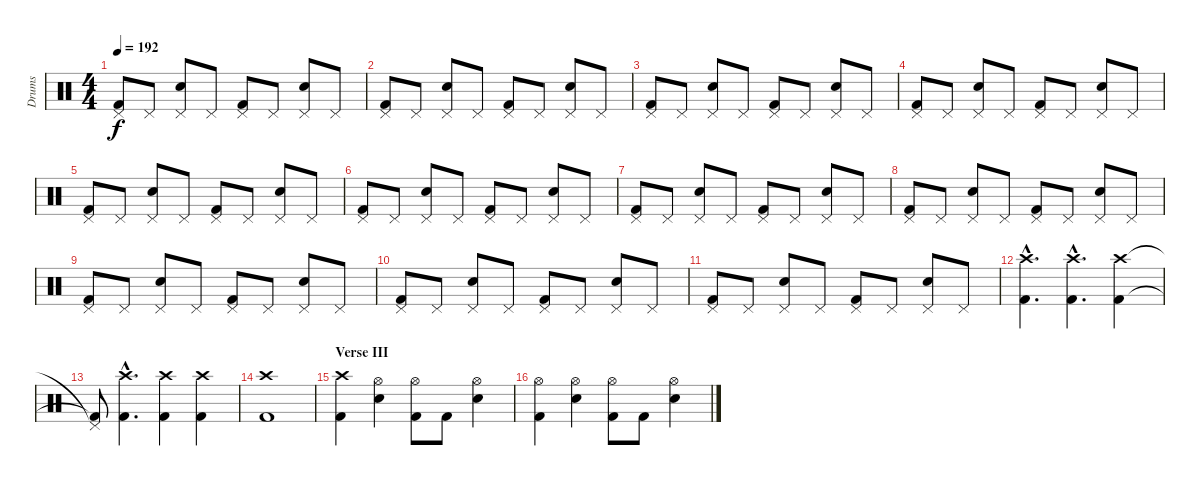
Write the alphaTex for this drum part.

\track ("Drums" "Drums") {instrument percussion}
\staff {score}
\articulation defaults
\ts (4 4)
\tempo 192
\clef neutral
\ks c
("Pedal Hi-Hat (hit)" "Kick (hit) 2").8{dy f} "Pedal Hi-Hat (hit)".8 ("Pedal Hi-Hat (hit)" "Electric Snare (hit)").8 "Pedal Hi-Hat (hit)".8 ("Pedal Hi-Hat (hit)" "Kick (hit) 2").8 "Pedal Hi-Hat (hit)".8 ("Pedal Hi-Hat (hit)" "Electric Snare (hit)").8 "Pedal Hi-Hat (hit)".8 |
("Pedal Hi-Hat (hit)" "Kick (hit) 2").8 "Pedal Hi-Hat (hit)".8 ("Pedal Hi-Hat (hit)" "Electric Snare (hit)").8 "Pedal Hi-Hat (hit)".8 ("Pedal Hi-Hat (hit)" "Kick (hit) 2").8 "Pedal Hi-Hat (hit)".8 ("Pedal Hi-Hat (hit)" "Electric Snare (hit)").8 "Pedal Hi-Hat (hit)".8 |
("Pedal Hi-Hat (hit)" "Kick (hit) 2").8 "Pedal Hi-Hat (hit)".8 ("Pedal Hi-Hat (hit)" "Electric Snare (hit)").8 "Pedal Hi-Hat (hit)".8 ("Pedal Hi-Hat (hit)" "Kick (hit) 2").8 "Pedal Hi-Hat (hit)".8 ("Pedal Hi-Hat (hit)" "Electric Snare (hit)").8 "Pedal Hi-Hat (hit)".8 |
("Pedal Hi-Hat (hit)" "Kick (hit) 2").8 "Pedal Hi-Hat (hit)".8 ("Pedal Hi-Hat (hit)" "Electric Snare (hit)").8 "Pedal Hi-Hat (hit)".8 ("Pedal Hi-Hat (hit)" "Kick (hit) 2").8 "Pedal Hi-Hat (hit)".8 ("Pedal Hi-Hat (hit)" "Electric Snare (hit)").8 "Pedal Hi-Hat (hit)".8 |
("Pedal Hi-Hat (hit)" "Kick (hit) 2").8 "Pedal Hi-Hat (hit)".8 ("Pedal Hi-Hat (hit)" "Electric Snare (hit)").8 "Pedal Hi-Hat (hit)".8 ("Pedal Hi-Hat (hit)" "Kick (hit) 2").8 "Pedal Hi-Hat (hit)".8 ("Pedal Hi-Hat (hit)" "Electric Snare (hit)").8 "Pedal Hi-Hat (hit)".8 |
("Pedal Hi-Hat (hit)" "Kick (hit) 2").8 "Pedal Hi-Hat (hit)".8 ("Pedal Hi-Hat (hit)" "Electric Snare (hit)").8 "Pedal Hi-Hat (hit)".8 ("Pedal Hi-Hat (hit)" "Kick (hit) 2").8 "Pedal Hi-Hat (hit)".8 ("Pedal Hi-Hat (hit)" "Electric Snare (hit)").8 "Pedal Hi-Hat (hit)".8 |
("Pedal Hi-Hat (hit)" "Kick (hit) 2").8 "Pedal Hi-Hat (hit)".8 ("Pedal Hi-Hat (hit)" "Electric Snare (hit)").8 "Pedal Hi-Hat (hit)".8 ("Pedal Hi-Hat (hit)" "Kick (hit) 2").8 "Pedal Hi-Hat (hit)".8 ("Pedal Hi-Hat (hit)" "Electric Snare (hit)").8 "Pedal Hi-Hat (hit)".8 |
("Pedal Hi-Hat (hit)" "Kick (hit) 2").8 "Pedal Hi-Hat (hit)".8 ("Pedal Hi-Hat (hit)" "Electric Snare (hit)").8 "Pedal Hi-Hat (hit)".8 ("Pedal Hi-Hat (hit)" "Kick (hit) 2").8 "Pedal Hi-Hat (hit)".8 ("Pedal Hi-Hat (hit)" "Electric Snare (hit)").8 "Pedal Hi-Hat (hit)".8 |
("Pedal Hi-Hat (hit)" "Kick (hit) 2").8 "Pedal Hi-Hat (hit)".8 ("Pedal Hi-Hat (hit)" "Electric Snare (hit)").8 "Pedal Hi-Hat (hit)".8 ("Pedal Hi-Hat (hit)" "Kick (hit) 2").8 "Pedal Hi-Hat (hit)".8 ("Pedal Hi-Hat (hit)" "Electric Snare (hit)").8 "Pedal Hi-Hat (hit)".8 |
("Pedal Hi-Hat (hit)" "Kick (hit) 2").8 "Pedal Hi-Hat (hit)".8 ("Pedal Hi-Hat (hit)" "Electric Snare (hit)").8 "Pedal Hi-Hat (hit)".8 ("Pedal Hi-Hat (hit)" "Kick (hit) 2").8 "Pedal Hi-Hat (hit)".8 ("Pedal Hi-Hat (hit)" "Electric Snare (hit)").8 "Pedal Hi-Hat (hit)".8 |
("Pedal Hi-Hat (hit)" "Kick (hit) 2").8 "Pedal Hi-Hat (hit)".8 ("Pedal Hi-Hat (hit)" "Electric Snare (hit)").8 "Pedal Hi-Hat (hit)".8 ("Pedal Hi-Hat (hit)" "Kick (hit) 2").8 "Pedal Hi-Hat (hit)".8 ("Pedal Hi-Hat (hit)" "Electric Snare (hit)").8 "Pedal Hi-Hat (hit)".8 |
("Crash high (hit)"{hac} "Kick (hit) 2"{hac}).4{d} ("Crash high (hit)"{hac} "Kick (hit) 2"{hac}).4{d} ("Crash high (hit)" "Kick (hit) 2").4 |
("Pedal Hi-Hat (hit)"{t} "Kick (hit) 2"{t}).8 ("Crash high (hit)"{hac} "Kick (hit) 2"{hac}).4{d} ("Crash high (hit)" "Kick (hit) 2").4 ("Crash high (hit)" "Kick (hit) 2").4 |
("Crash high (hit)" "Kick (hit) 2").1 |
\section ("" "Verse III")
("Crash high (hit)" "Kick (hit) 2").4 ("Hi-Hat (open)" "Electric Snare (hit)").4 ("Hi-Hat (open)" "Kick (hit) 2").8 "Kick (hit) 2".8 ("Hi-Hat (open)" "Electric Snare (hit)").4 |
("Hi-Hat (open)" "Kick (hit) 2").4 ("Hi-Hat (open)" "Electric Snare (hit)").4 ("Hi-Hat (open)" "Kick (hit) 2").8 "Kick (hit) 2".8 ("Hi-Hat (open)" "Electric Snare (hit)").4
